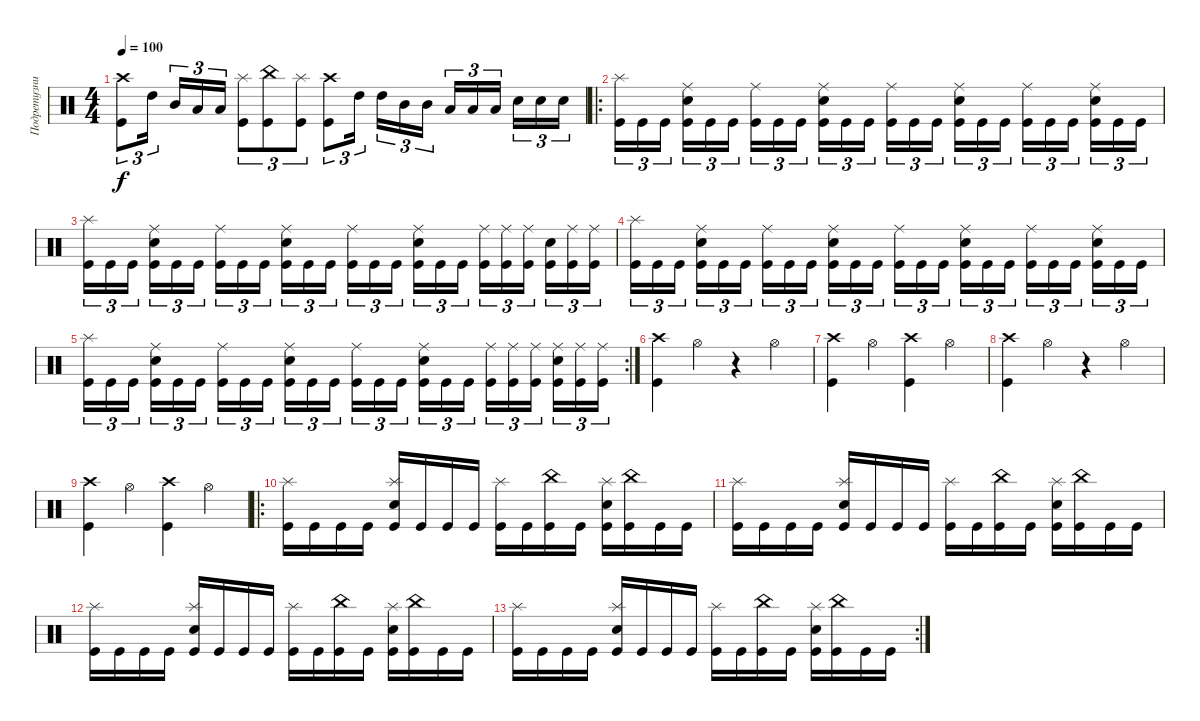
\track ("Подретузник" "Подретузни") {instrument percussion}
\staff {score}
\articulation defaults
\ts (4 4)
\tempo 100
\clef neutral
\ks c
("Crash high (hit)" "Kick (hit)").8{tu (3 2) dy f} "High Tom (hit)".16{tu (3 2)} "Mid Tom (hit)".16{tu (3 2)} "Low Tom (hit)".16{tu (3 2)} "Low Floor Tom (hit)".16{tu (3 2)} ("Splash (hit)" "Kick (hit)").8{tu (3 2)} ("China (hit)" "Kick (hit)").8{tu (3 2)} ("Splash (hit)" "Kick (hit)").8{tu (3 2)} ("Crash high (hit)" "Kick (hit)").8{tu (3 2)} "High Tom (hit)".16{tu (3 2)} "High Tom (hit)".16{tu (3 2)} "Mid Tom (hit)".16{tu (3 2)} "Mid Tom (hit)".16{tu (3 2)} "Low Floor Tom (hit)".16{tu (3 2)} "Low Floor Tom (hit)".16{tu (3 2)} "Low Floor Tom (hit)".16{tu (3 2)} "Electric Snare (hit)".16{tu (3 2)} "Electric Snare (hit)".16{tu (3 2)} "Electric Snare (hit)".16{tu (3 2)} |
\ro
("Splash (hit)" "Kick (hit)").16{tu (3 2)} "Kick (hit)".16{tu (3 2)} "Kick (hit)".16{tu (3 2)} ("Ride (middle)" "Electric Snare (hit)" "Kick (hit)").16{tu (3 2)} "Kick (hit)".16{tu (3 2)} "Kick (hit)".16{tu (3 2)} ("Ride (middle)" "Kick (hit)").16{tu (3 2)} "Kick (hit)".16{tu (3 2)} "Kick (hit)".16{tu (3 2)} ("Ride (middle)" "Electric Snare (hit)" "Kick (hit)").16{tu (3 2)} "Kick (hit)".16{tu (3 2)} "Kick (hit)".16{tu (3 2)} ("Ride (middle)" "Kick (hit)").16{tu (3 2)} "Kick (hit)".16{tu (3 2)} "Kick (hit)".16{tu (3 2)} ("Ride (middle)" "Electric Snare (hit)" "Kick (hit)").16{tu (3 2)} "Kick (hit)".16{tu (3 2)} "Kick (hit)".16{tu (3 2)} ("Ride (middle)" "Kick (hit)").16{tu (3 2)} "Kick (hit)".16{tu (3 2)} "Kick (hit)".16{tu (3 2)} ("Ride (middle)" "Electric Snare (hit)" "Kick (hit)").16{tu (3 2)} "Kick (hit)".16{tu (3 2)} "Kick (hit)".16{tu (3 2)} |
("Splash (hit)" "Kick (hit)").16{tu (3 2)} "Kick (hit)".16{tu (3 2)} "Kick (hit)".16{tu (3 2)} ("Ride (middle)" "Electric Snare (hit)" "Kick (hit)").16{tu (3 2)} "Kick (hit)".16{tu (3 2)} "Kick (hit)".16{tu (3 2)} ("Ride (middle)" "Kick (hit)").16{tu (3 2)} "Kick (hit)".16{tu (3 2)} "Kick (hit)".16{tu (3 2)} ("Ride (middle)" "Electric Snare (hit)" "Kick (hit)").16{tu (3 2)} "Kick (hit)".16{tu (3 2)} "Kick (hit)".16{tu (3 2)} ("Ride (middle)" "Kick (hit)").16{tu (3 2)} "Kick (hit)".16{tu (3 2)} "Kick (hit)".16{tu (3 2)} ("Ride (middle)" "Electric Snare (hit)" "Kick (hit)").16{tu (3 2)} "Kick (hit)".16{tu (3 2)} "Kick (hit)".16{tu (3 2)} ("Ride (middle)" "Kick (hit)").16{tu (3 2)} ("Ride (middle)" "Kick (hit)").16{tu (3 2)} ("Ride (middle)" "Kick (hit)").16{tu (3 2)} ("Electric Snare (hit)" "Kick (hit)").16{tu (3 2)} ("Ride (middle)" "Kick (hit)").16{tu (3 2)} ("Ride (middle)" "Kick (hit)").16{tu (3 2)} |
("Splash (hit)" "Kick (hit)").16{tu (3 2)} "Kick (hit)".16{tu (3 2)} "Kick (hit)".16{tu (3 2)} ("Ride (middle)" "Electric Snare (hit)" "Kick (hit)").16{tu (3 2)} "Kick (hit)".16{tu (3 2)} "Kick (hit)".16{tu (3 2)} ("Ride (middle)" "Kick (hit)").16{tu (3 2)} "Kick (hit)".16{tu (3 2)} "Kick (hit)".16{tu (3 2)} ("Ride (middle)" "Electric Snare (hit)" "Kick (hit)").16{tu (3 2)} "Kick (hit)".16{tu (3 2)} "Kick (hit)".16{tu (3 2)} ("Ride (middle)" "Kick (hit)").16{tu (3 2)} "Kick (hit)".16{tu (3 2)} "Kick (hit)".16{tu (3 2)} ("Ride (middle)" "Electric Snare (hit)" "Kick (hit)").16{tu (3 2)} "Kick (hit)".16{tu (3 2)} "Kick (hit)".16{tu (3 2)} ("Ride (middle)" "Kick (hit)").16{tu (3 2)} "Kick (hit)".16{tu (3 2)} "Kick (hit)".16{tu (3 2)} ("Ride (middle)" "Electric Snare (hit)" "Kick (hit)").16{tu (3 2)} "Kick (hit)".16{tu (3 2)} "Kick (hit)".16{tu (3 2)} |
\rc 2
("Splash (hit)" "Kick (hit)").16{tu (3 2)} "Kick (hit)".16{tu (3 2)} "Kick (hit)".16{tu (3 2)} ("Ride (middle)" "Electric Snare (hit)" "Kick (hit)").16{tu (3 2)} "Kick (hit)".16{tu (3 2)} "Kick (hit)".16{tu (3 2)} ("Ride (middle)" "Kick (hit)").16{tu (3 2)} "Kick (hit)".16{tu (3 2)} "Kick (hit)".16{tu (3 2)} ("Ride (middle)" "Electric Snare (hit)" "Kick (hit)").16{tu (3 2)} "Kick (hit)".16{tu (3 2)} "Kick (hit)".16{tu (3 2)} ("Ride (middle)" "Kick (hit)").16{tu (3 2)} "Kick (hit)".16{tu (3 2)} "Kick (hit)".16{tu (3 2)} ("Ride (middle)" "Electric Snare (hit)" "Kick (hit)").16{tu (3 2)} "Kick (hit)".16{tu (3 2)} "Kick (hit)".16{tu (3 2)} ("Ride (middle)" "Kick (hit)").16{tu (3 2)} ("Ride (middle)" "Kick (hit)").16{tu (3 2)} ("Ride (middle)" "Kick (hit)").16{tu (3 2)} ("Ride (middle)" "Electric Snare (hit)" "Kick (hit)").16{tu (3 2)} ("Ride (middle)" "Kick (hit)").16{tu (3 2)} ("Ride (middle)" "Kick (hit)").16{tu (3 2)} |
("Kick (hit)" "Crash high (hit)").4 "Hi-Hat (open)".4 r.4 "Hi-Hat (open)".4 |
("Crash high (hit)" "Kick (hit)").4 "Hi-Hat (open)".4 ("Crash high (hit)" "Kick (hit)").4 "Hi-Hat (open)".4 |
("Kick (hit)" "Crash high (hit)").4 "Hi-Hat (open)".4 r.4 "Hi-Hat (open)".4 |
("Crash high (hit)" "Kick (hit)").4 "Hi-Hat (open)".4 ("Crash high (hit)" "Kick (hit)").4 "Hi-Hat (open)".4 |
\ro
("Splash (hit)" "Kick (hit)").16 "Kick (hit)".16 "Kick (hit)".16 "Kick (hit)".16 ("Splash (hit)" "Electric Snare (hit)" "Kick (hit)").16 "Kick (hit)".16 "Kick (hit)".16 "Kick (hit)".16 ("Splash (hit)" "Kick (hit)").16 "Kick (hit)".16 ("China (hit)" "Kick (hit)").16 "Kick (hit)".16 ("Splash (hit)" "Electric Snare (hit)" "Kick (hit)").16 ("China (hit)" "Kick (hit)").16 "Kick (hit)".16 "Kick (hit)".16 |
("Splash (hit)" "Kick (hit)").16 "Kick (hit)".16 "Kick (hit)".16 "Kick (hit)".16 ("Splash (hit)" "Electric Snare (hit)" "Kick (hit)").16 "Kick (hit)".16 "Kick (hit)".16 "Kick (hit)".16 ("Splash (hit)" "Kick (hit)").16 "Kick (hit)".16 ("China (hit)" "Kick (hit)").16 "Kick (hit)".16 ("Splash (hit)" "Electric Snare (hit)" "Kick (hit)").16 ("China (hit)" "Kick (hit)").16 "Kick (hit)".16 "Kick (hit)".16 |
("Splash (hit)" "Kick (hit)").16 "Kick (hit)".16 "Kick (hit)".16 "Kick (hit)".16 ("Splash (hit)" "Electric Snare (hit)" "Kick (hit)").16 "Kick (hit)".16 "Kick (hit)".16 "Kick (hit)".16 ("Splash (hit)" "Kick (hit)").16 "Kick (hit)".16 ("China (hit)" "Kick (hit)").16 "Kick (hit)".16 ("Splash (hit)" "Electric Snare (hit)" "Kick (hit)").16 ("China (hit)" "Kick (hit)").16 "Kick (hit)".16 "Kick (hit)".16 |
\rc 2
("Splash (hit)" "Kick (hit)").16 "Kick (hit)".16 "Kick (hit)".16 "Kick (hit)".16 ("Splash (hit)" "Electric Snare (hit)" "Kick (hit)").16 "Kick (hit)".16 "Kick (hit)".16 "Kick (hit)".16 ("Splash (hit)" "Kick (hit)").16 "Kick (hit)".16 ("China (hit)" "Kick (hit)").16 "Kick (hit)".16 ("Splash (hit)" "Electric Snare (hit)" "Kick (hit)").16 ("China (hit)" "Kick (hit)").16 "Kick (hit)".16 "Kick (hit)".16
